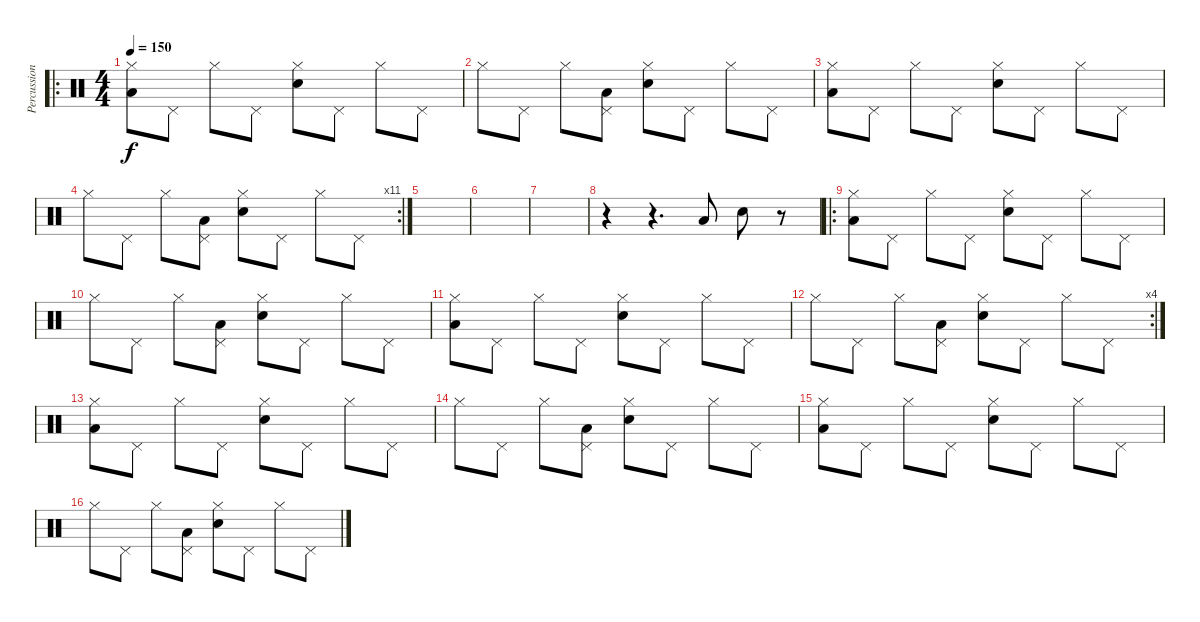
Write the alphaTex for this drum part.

\track ("Percussion" "Percussion") {instrument percussion}
\staff {score}
\articulation defaults
\ro
\ts (4 4)
\tempo 150
\clef neutral
\ks c
("Hi-Hat (closed)" "Low Floor Tom (hit)").8{dy f} "Pedal Hi-Hat (hit)".8 "Hi-Hat (closed)".8 "Pedal Hi-Hat (hit)".8 ("Hi-Hat (closed)" "Electric Snare (hit)").8 "Pedal Hi-Hat (hit)".8 "Hi-Hat (closed)".8 "Pedal Hi-Hat (hit)".8 |
"Hi-Hat (closed)".8 "Pedal Hi-Hat (hit)".8 "Hi-Hat (closed)".8 ("Pedal Hi-Hat (hit)" "Low Floor Tom (hit)").8 ("Hi-Hat (closed)" "Electric Snare (hit)").8 "Pedal Hi-Hat (hit)".8 "Hi-Hat (closed)".8 "Pedal Hi-Hat (hit)".8 |
("Hi-Hat (closed)" "Low Floor Tom (hit)").8 "Pedal Hi-Hat (hit)".8 "Hi-Hat (closed)".8 "Pedal Hi-Hat (hit)".8 ("Hi-Hat (closed)" "Electric Snare (hit)").8 "Pedal Hi-Hat (hit)".8 "Hi-Hat (closed)".8 "Pedal Hi-Hat (hit)".8 |
\rc 11 "Hi-Hat (closed)".8 "Pedal Hi-Hat (hit)".8 "Hi-Hat (closed)".8
("Pedal Hi-Hat (hit)" "Low Floor Tom (hit)").8 ("Hi-Hat (closed)" "Electric Snare (hit)").8 "Pedal Hi-Hat (hit)".8 "Hi-Hat (closed)".8 "Pedal Hi-Hat (hit)".8 |
|
|
|
r.4 r.4{d} "Low Floor Tom (hit)".8 "Electric Snare (hit)".8 r.8 |
\ro
("Hi-Hat (closed)" "Low Floor Tom (hit)").8 "Pedal Hi-Hat (hit)".8 "Hi-Hat (closed)".8 "Pedal Hi-Hat (hit)".8 ("Hi-Hat (closed)" "Electric Snare (hit)").8 "Pedal Hi-Hat (hit)".8 "Hi-Hat (closed)".8 "Pedal Hi-Hat (hit)".8 |
"Hi-Hat (closed)".8 "Pedal Hi-Hat (hit)".8 "Hi-Hat (closed)".8 ("Pedal Hi-Hat (hit)" "Low Floor Tom (hit)").8 ("Hi-Hat (closed)" "Electric Snare (hit)").8 "Pedal Hi-Hat (hit)".8 "Hi-Hat (closed)".8 "Pedal Hi-Hat (hit)".8 |
("Hi-Hat (closed)" "Low Floor Tom (hit)").8 "Pedal Hi-Hat (hit)".8 "Hi-Hat (closed)".8 "Pedal Hi-Hat (hit)".8 ("Hi-Hat (closed)" "Electric Snare (hit)").8 "Pedal Hi-Hat (hit)".8 "Hi-Hat (closed)".8 "Pedal Hi-Hat (hit)".8 |
\rc 4 "Hi-Hat (closed)".8 "Pedal Hi-Hat (hit)".8 "Hi-Hat (closed)".8
("Pedal Hi-Hat (hit)" "Low Floor Tom (hit)").8 ("Hi-Hat (closed)" "Electric Snare (hit)").8 "Pedal Hi-Hat (hit)".8 "Hi-Hat (closed)".8 "Pedal Hi-Hat (hit)".8 |
("Hi-Hat (closed)" "Low Floor Tom (hit)").8 "Pedal Hi-Hat (hit)".8 "Hi-Hat (closed)".8 "Pedal Hi-Hat (hit)".8 ("Hi-Hat (closed)" "Electric Snare (hit)").8 "Pedal Hi-Hat (hit)".8 "Hi-Hat (closed)".8 "Pedal Hi-Hat (hit)".8 |
"Hi-Hat (closed)".8 "Pedal Hi-Hat (hit)".8 "Hi-Hat (closed)".8 ("Pedal Hi-Hat (hit)" "Low Floor Tom (hit)").8 ("Hi-Hat (closed)" "Electric Snare (hit)").8 "Pedal Hi-Hat (hit)".8 "Hi-Hat (closed)".8 "Pedal Hi-Hat (hit)".8 |
("Hi-Hat (closed)" "Low Floor Tom (hit)").8 "Pedal Hi-Hat (hit)".8 "Hi-Hat (closed)".8 "Pedal Hi-Hat (hit)".8 ("Hi-Hat (closed)" "Electric Snare (hit)").8 "Pedal Hi-Hat (hit)".8 "Hi-Hat (closed)".8 "Pedal Hi-Hat (hit)".8 |
"Hi-Hat (closed)".8 "Pedal Hi-Hat (hit)".8 "Hi-Hat (closed)".8 ("Pedal Hi-Hat (hit)" "Low Floor Tom (hit)").8 ("Hi-Hat (closed)" "Electric Snare (hit)").8 "Pedal Hi-Hat (hit)".8 "Hi-Hat (closed)".8 "Pedal Hi-Hat (hit)".8
